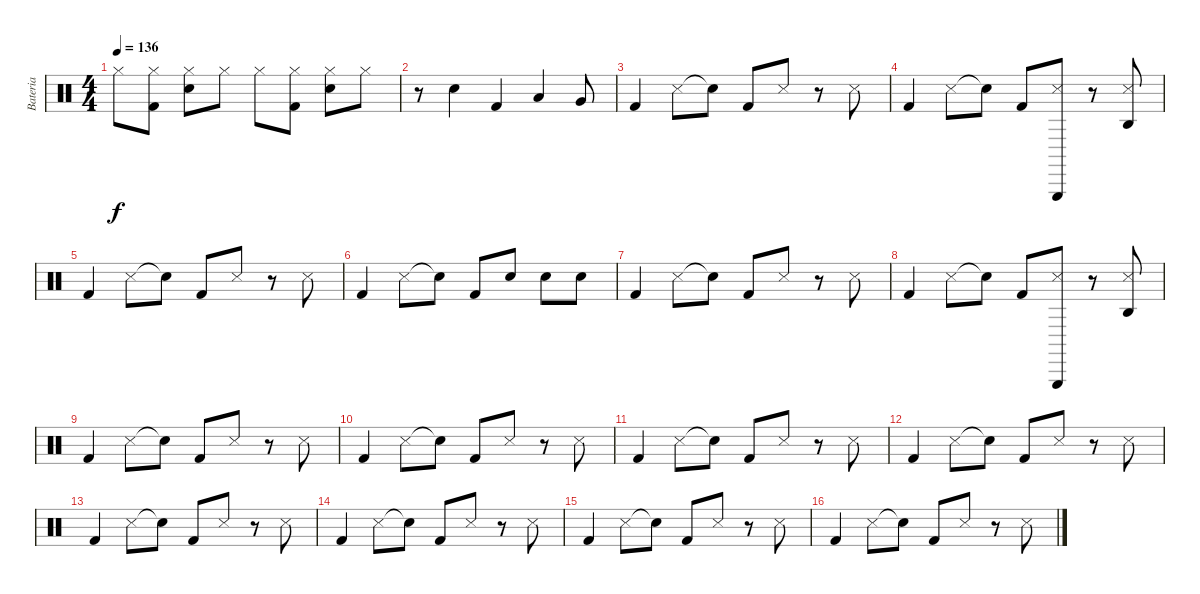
\track ("Bateria" "Bateria") {instrument percussion}
\staff {score}
\articulation defaults
\ts (4 4)
\tempo 136
\clef neutral
\ks c "Hi-Hat (closed)".8{dy f}
("Kick (hit) 2" "Hi-Hat (closed)").8 ("Snare (hit) 2" "Hi-Hat (closed)").8 "Hi-Hat (closed)".8 "Hi-Hat (closed)".8 ("Kick (hit) 2" "Hi-Hat (closed)").8 ("Hi-Hat (closed)" "Snare (hit) 2").8 "Hi-Hat (closed)".8 |
r.8 "Snare (hit) 2".4 "Kick (hit) 2".4 "Low Tom (hit)".4 "Very Low Tom (hit)".8 |
"Kick (hit) 2".4 "Snare (side stick) 3".8 "Snare (hit)"{t}.8 "Kick (hit) 2".8 "Snare (side stick) 3".8 r.8 "Snare (side stick) 3".8 |
"Kick (hit) 2".4 "Snare (side stick) 3".8 "Snare (hit)"{t}.8 "Kick (hit) 2".8 ("Triangle (hit)" "Snare (side stick) 3").8 r.8 ("Agogo high (hit)" "Snare (side stick) 3").8 |
"Kick (hit) 2".4 "Snare (side stick) 3".8 "Snare (hit)"{t}.8 "Kick (hit) 2".8 "Snare (side stick) 3".8 r.8 "Snare (side stick) 3".8 |
"Kick (hit) 2".4 "Snare (side stick) 3".8 "Snare (hit)"{t}.8 "Kick (hit) 2".8 "Snare (hit) 2".8 "Snare (hit) 2".8 "Snare (hit) 2".8 |
"Kick (hit) 2".4 "Snare (side stick) 3".8 "Snare (hit)"{t}.8 "Kick (hit) 2".8 "Snare (side stick) 3".8 r.8 "Snare (side stick) 3".8 |
"Kick (hit) 2".4 "Snare (side stick) 3".8 "Snare (hit)"{t}.8 "Kick (hit) 2".8 ("Triangle (hit)" "Snare (side stick) 3").8 r.8 ("Agogo high (hit)" "Snare (side stick) 3").8 |
"Kick (hit) 2".4 "Snare (side stick) 3".8 "Snare (hit)"{t}.8 "Kick (hit) 2".8 "Snare (side stick) 3".8 r.8 "Snare (side stick) 3".8 |
"Kick (hit) 2".4 "Snare (side stick) 3".8 "Snare (hit)"{t}.8 "Kick (hit) 2".8 "Snare (side stick) 3".8 r.8 "Snare (side stick) 3".8 |
"Kick (hit) 2".4 "Snare (side stick) 3".8 "Snare (hit)"{t}.8 "Kick (hit) 2".8 "Snare (side stick) 3".8 r.8 "Snare (side stick) 3".8 |
"Kick (hit) 2".4 "Snare (side stick) 3".8 "Snare (hit)"{t}.8 "Kick (hit) 2".8 "Snare (side stick) 3".8 r.8 "Snare (side stick) 3".8 |
"Kick (hit) 2".4 "Snare (side stick) 3".8 "Snare (hit)"{t}.8 "Kick (hit) 2".8 "Snare (side stick) 3".8 r.8 "Snare (side stick) 3".8 |
"Kick (hit) 2".4 "Snare (side stick) 3".8 "Snare (hit)"{t}.8 "Kick (hit) 2".8 "Snare (side stick) 3".8 r.8 "Snare (side stick) 3".8 |
"Kick (hit) 2".4 "Snare (side stick) 3".8 "Snare (hit)"{t}.8 "Kick (hit) 2".8 "Snare (side stick) 3".8 r.8 "Snare (side stick) 3".8 |
"Kick (hit) 2".4 "Snare (side stick) 3".8 "Snare (hit)"{t}.8 "Kick (hit) 2".8 "Snare (side stick) 3".8 r.8 "Snare (side stick) 3".8
